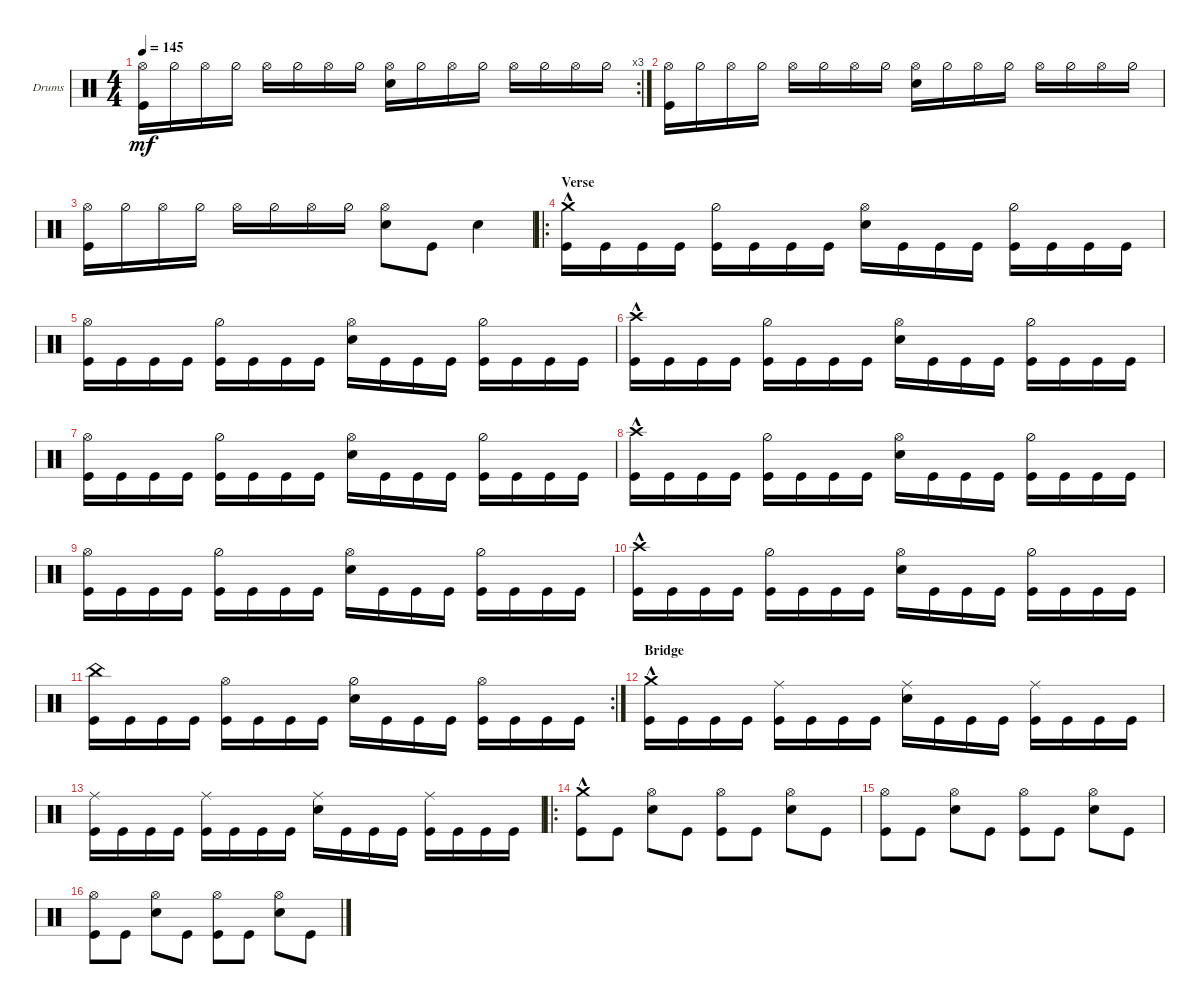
\defaultSystemsLayout 4
\bracketExtendMode groupsimilarinstruments
\firstSystemTrackNameOrientation horizontal
\otherSystemsTrackNameOrientation horizontal
\track ("Drumkit" "Drums") {instrument percussion}
\staff {score}
\articulation defaults
\rc 3
\ts (4 4)
\tempo 145
\clef neutral
\ks c
("Kick (hit)" "Hi-Hat (open)").16{dy mf} "Hi-Hat (half)".16 "Hi-Hat (open)".16 "Hi-Hat (half)".16 "Hi-Hat (open)".16 "Hi-Hat (half)".16 "Hi-Hat (open)".16 "Hi-Hat (half)".16 ("Snare (hit) 2" "Hi-Hat (open)").16 "Hi-Hat (half)".16 "Hi-Hat (open)".16 "Hi-Hat (half)".16 "Hi-Hat (open)".16 "Hi-Hat (half)".16 "Hi-Hat (open)".16 "Hi-Hat (half)".16 |
("Kick (hit)" "Hi-Hat (open)").16 "Hi-Hat (half)".16 "Hi-Hat (open)".16 "Hi-Hat (half)".16 "Hi-Hat (open)".16 "Hi-Hat (half)".16 "Hi-Hat (open)".16 "Hi-Hat (half)".16 ("Snare (hit) 2" "Hi-Hat (open)").16 "Hi-Hat (half)".16 "Hi-Hat (open)".16 "Hi-Hat (half)".16 "Hi-Hat (open)".16 "Hi-Hat (half)".16 "Hi-Hat (open)".16 "Hi-Hat (half)".16 |
("Kick (hit)" "Hi-Hat (open)").16 "Hi-Hat (half)".16 "Hi-Hat (open)".16 "Hi-Hat (half)".16 "Hi-Hat (open)".16 "Hi-Hat (half)".16 "Hi-Hat (open)".16 "Hi-Hat (half)".16 ("Snare (hit) 2" "Hi-Hat (open)").8 "Kick (hit)".8 "Snare (hit) 2".4 |
\ro
\section ("" "Verse")
("Kick (hit)" "Crash medium (hit)"{hac}).16 "Kick (hit)".16 "Kick (hit)".16 "Kick (hit)".16 ("Kick (hit)" "Hi-Hat (half)").16 "Kick (hit)".16 "Kick (hit)".16 "Kick (hit)".16 ("Snare (hit) 2" "Hi-Hat (open)").16 "Kick (hit)".16 "Kick (hit)".16 "Kick (hit)".16 ("Kick (hit)" "Hi-Hat (half)").16 "Kick (hit)".16 "Kick (hit)".16 "Kick (hit)".16 |
("Kick (hit)" "Hi-Hat (open)").16 "Kick (hit)".16 "Kick (hit)".16 "Kick (hit)".16 ("Kick (hit)" "Hi-Hat (half)").16 "Kick (hit)".16 "Kick (hit)".16 "Kick (hit)".16 ("Snare (hit) 2" "Hi-Hat (open)").16 "Kick (hit)".16 "Kick (hit)".16 "Kick (hit)".16 ("Kick (hit)" "Hi-Hat (half)").16 "Kick (hit)".16 "Kick (hit)".16 "Kick (hit)".16 |
("Kick (hit)" "Crash high (hit)"{hac}).16 "Kick (hit)".16 "Kick (hit)".16 "Kick (hit)".16 ("Kick (hit)" "Hi-Hat (half)").16 "Kick (hit)".16 "Kick (hit)".16 "Kick (hit)".16 ("Snare (hit) 2" "Hi-Hat (open)").16 "Kick (hit)".16 "Kick (hit)".16 "Kick (hit)".16 ("Kick (hit)" "Hi-Hat (half)").16 "Kick (hit)".16 "Kick (hit)".16 "Kick (hit)".16 |
("Kick (hit)" "Hi-Hat (open)").16 "Kick (hit)".16 "Kick (hit)".16 "Kick (hit)".16 ("Kick (hit)" "Hi-Hat (half)").16 "Kick (hit)".16 "Kick (hit)".16 "Kick (hit)".16 ("Snare (hit) 2" "Hi-Hat (open)").16 "Kick (hit)".16 "Kick (hit)".16 "Kick (hit)".16 ("Kick (hit)" "Hi-Hat (half)").16 "Kick (hit)".16 "Kick (hit)".16 "Kick (hit)".16 |
("Kick (hit)" "Crash high (hit)"{hac}).16 "Kick (hit)".16 "Kick (hit)".16 "Kick (hit)".16 ("Kick (hit)" "Hi-Hat (half)").16 "Kick (hit)".16 "Kick (hit)".16 "Kick (hit)".16 ("Snare (hit) 2" "Hi-Hat (open)").16 "Kick (hit)".16 "Kick (hit)".16 "Kick (hit)".16 ("Kick (hit)" "Hi-Hat (half)").16 "Kick (hit)".16 "Kick (hit)".16 "Kick (hit)".16 |
("Kick (hit)" "Hi-Hat (open)").16 "Kick (hit)".16 "Kick (hit)".16 "Kick (hit)".16 ("Kick (hit)" "Hi-Hat (half)").16 "Kick (hit)".16 "Kick (hit)".16 "Kick (hit)".16 ("Snare (hit) 2" "Hi-Hat (open)").16 "Kick (hit)".16 "Kick (hit)".16 "Kick (hit)".16 ("Kick (hit)" "Hi-Hat (half)").16 "Kick (hit)".16 "Kick (hit)".16 "Kick (hit)".16 |
("Kick (hit)" "Crash high (hit)"{hac}).16 "Kick (hit)".16 "Kick (hit)".16 "Kick (hit)".16 ("Kick (hit)" "Hi-Hat (half)").16 "Kick (hit)".16 "Kick (hit)".16 "Kick (hit)".16 ("Snare (hit) 2" "Hi-Hat (open)").16 "Kick (hit)".16 "Kick (hit)".16 "Kick (hit)".16 ("Kick (hit)" "Hi-Hat (half)").16 "Kick (hit)".16 "Kick (hit)".16 "Kick (hit)".16 |
\rc 2
("Kick (hit)" "China (hit)").16 "Kick (hit)".16 "Kick (hit)".16 "Kick (hit)".16 ("Kick (hit)" "Hi-Hat (open)").16 "Kick (hit)".16 "Kick (hit)".16 "Kick (hit)".16 ("Snare (hit) 2" "Hi-Hat (half)").16 "Kick (hit)".16 "Kick (hit)".16 "Kick (hit)".16 ("Kick (hit)" "Hi-Hat (open)").16 "Kick (hit)".16 "Kick (hit)".16 "Kick (hit)".16 |
\section ("" "Bridge")
("Kick (hit)" "Crash medium (hit)"{hac}).16 "Kick (hit)".16 "Kick (hit)".16 "Kick (hit)".16 ("Kick (hit)" "Ride (middle)").16 "Kick (hit)".16 "Kick (hit)".16 "Kick (hit)".16 ("Snare (hit) 2" "Ride (middle)").16 "Kick (hit)".16 "Kick (hit)".16 "Kick (hit)".16 ("Kick (hit)" "Ride (middle)").16 "Kick (hit)".16 "Kick (hit)".16 "Kick (hit)".16 |
("Kick (hit)" "Ride (middle)").16 "Kick (hit)".16 "Kick (hit)".16 "Kick (hit)".16 ("Kick (hit)" "Ride (middle)").16 "Kick (hit)".16 "Kick (hit)".16 "Kick (hit)".16 ("Snare (hit) 2" "Ride (middle)").16 "Kick (hit)".16 "Kick (hit)".16 "Kick (hit)".16 ("Kick (hit)" "Ride (middle)").16 "Kick (hit)".16 "Kick (hit)".16 "Kick (hit)".16 |
\ro
("Kick (hit)" "Crash medium (hit)"{hac}).8 "Kick (hit)".8 ("Snare (hit) 2" "Hi-Hat (open)").8 "Kick (hit)".8 ("Kick (hit)" "Hi-Hat (open)").8 "Kick (hit)".8 ("Snare (hit) 2" "Hi-Hat (open)").8 "Kick (hit)".8 |
("Kick (hit)" "Hi-Hat (open)").8 "Kick (hit)".8 ("Snare (hit) 2" "Hi-Hat (open)").8 "Kick (hit)".8 ("Kick (hit)" "Hi-Hat (open)").8 "Kick (hit)".8 ("Snare (hit) 2" "Hi-Hat (open)").8 "Kick (hit)".8 |
("Kick (hit)" "Hi-Hat (open)").8 "Kick (hit)".8 ("Snare (hit) 2" "Hi-Hat (open)").8 "Kick (hit)".8 ("Kick (hit)" "Hi-Hat (open)").8 "Kick (hit)".8 ("Snare (hit) 2" "Hi-Hat (open)").8 "Kick (hit)".8
